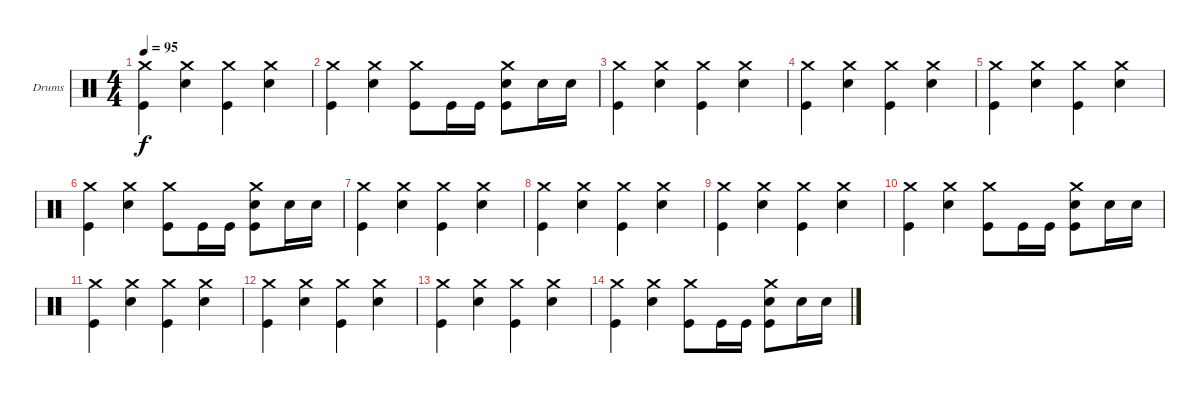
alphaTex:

\bracketExtendMode groupsimilarinstruments
\firstSystemTrackNameOrientation horizontal
\otherSystemsTrackNameOrientation horizontal
\track ("Drumkit" "Drums") {instrument percussion}
\staff {score}
\articulation defaults
\ts (4 4)
\tempo 95
\clef neutral
\ks c
("Crash medium (hit)" "Kick (hit)").4{dy f} ("Crash medium (hit)" "Snare (hit) 2").4 ("Crash medium (hit)" "Kick (hit)").4 ("Crash medium (hit)" "Snare (hit) 2").4 |
("Crash medium (hit)" "Kick (hit)").4 ("Crash medium (hit)" "Snare (hit) 2").4 ("Crash medium (hit)" "Kick (hit)").8 "Kick (hit)".16 "Kick (hit)".16 ("Crash medium (hit)" "Snare (hit) 2" "Kick (hit)").8 "Snare (hit) 2".16 "Snare (hit) 2".16 |
("Crash medium (hit)" "Kick (hit)").4 ("Crash medium (hit)" "Snare (hit) 2").4 ("Crash medium (hit)" "Kick (hit)").4 ("Crash medium (hit)" "Snare (hit) 2").4 |
("Crash medium (hit)" "Kick (hit)").4 ("Crash medium (hit)" "Snare (hit) 2").4 ("Crash medium (hit)" "Kick (hit)").4 ("Crash medium (hit)" "Snare (hit) 2").4 |
("Crash medium (hit)" "Kick (hit)").4 ("Crash medium (hit)" "Snare (hit) 2").4 ("Crash medium (hit)" "Kick (hit)").4 ("Crash medium (hit)" "Snare (hit) 2").4 |
("Crash medium (hit)" "Kick (hit)").4 ("Crash medium (hit)" "Snare (hit) 2").4 ("Crash medium (hit)" "Kick (hit)").8 "Kick (hit)".16 "Kick (hit)".16 ("Crash medium (hit)" "Snare (hit) 2" "Kick (hit)").8 "Snare (hit) 2".16 "Snare (hit) 2".16 |
("Crash medium (hit)" "Kick (hit)").4 ("Crash medium (hit)" "Snare (hit) 2").4 ("Crash medium (hit)" "Kick (hit)").4 ("Crash medium (hit)" "Snare (hit) 2").4 |
("Crash medium (hit)" "Kick (hit)").4 ("Crash medium (hit)" "Snare (hit) 2").4 ("Crash medium (hit)" "Kick (hit)").4 ("Crash medium (hit)" "Snare (hit) 2").4 |
("Crash medium (hit)" "Kick (hit)").4 ("Crash medium (hit)" "Snare (hit) 2").4 ("Crash medium (hit)" "Kick (hit)").4 ("Crash medium (hit)" "Snare (hit) 2").4 |
("Crash medium (hit)" "Kick (hit)").4 ("Crash medium (hit)" "Snare (hit) 2").4 ("Crash medium (hit)" "Kick (hit)").8 "Kick (hit)".16 "Kick (hit)".16 ("Crash medium (hit)" "Snare (hit) 2" "Kick (hit)").8 "Snare (hit) 2".16 "Snare (hit) 2".16 |
("Crash medium (hit)" "Kick (hit)").4 ("Crash medium (hit)" "Snare (hit) 2").4 ("Crash medium (hit)" "Kick (hit)").4 ("Crash medium (hit)" "Snare (hit) 2").4 |
("Crash medium (hit)" "Kick (hit)").4 ("Crash medium (hit)" "Snare (hit) 2").4 ("Crash medium (hit)" "Kick (hit)").4 ("Crash medium (hit)" "Snare (hit) 2").4 |
("Crash medium (hit)" "Kick (hit)").4 ("Crash medium (hit)" "Snare (hit) 2").4 ("Crash medium (hit)" "Kick (hit)").4 ("Crash medium (hit)" "Snare (hit) 2").4 |
("Crash medium (hit)" "Kick (hit)").4 ("Crash medium (hit)" "Snare (hit) 2").4 ("Crash medium (hit)" "Kick (hit)").8 "Kick (hit)".16 "Kick (hit)".16 ("Crash medium (hit)" "Snare (hit) 2" "Kick (hit)").8 "Snare (hit) 2".16 "Snare (hit) 2".16
